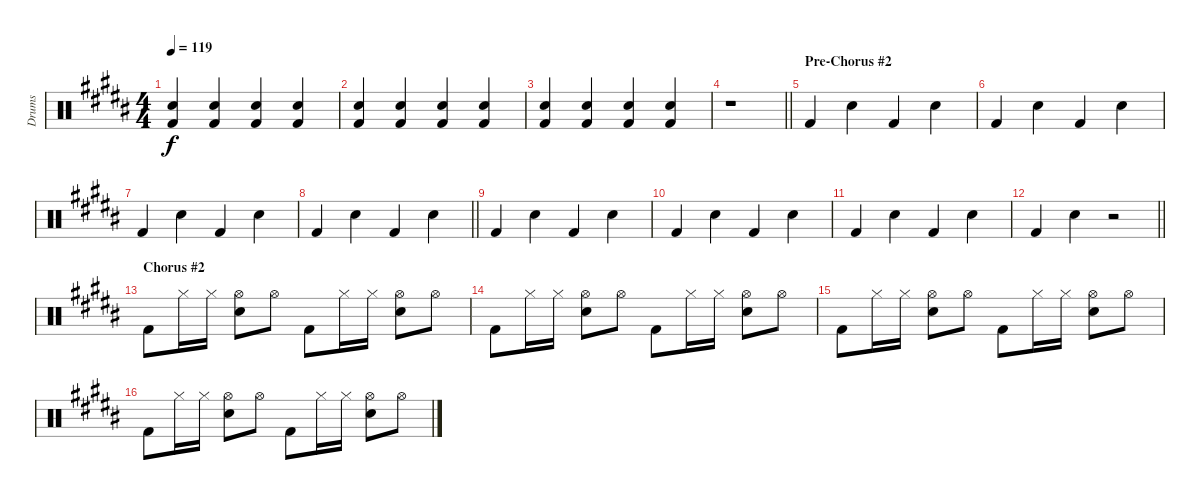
\track ("Drums" "Drums") {instrument percussion}
\staff {score}
\articulation defaults
\ts (4 4)
\tempo 119
\clef neutral
\ks b
("Kick (hit) 2" "Electric Snare (hit)").4{dy f} ("Kick (hit) 2" "Snare (hit) 2").4 ("Kick (hit) 2" "Electric Snare (hit)").4 ("Kick (hit) 2" "Snare (hit) 2").4 |
("Kick (hit) 2" "Electric Snare (hit)").4 ("Kick (hit) 2" "Snare (hit) 2").4 ("Kick (hit) 2" "Electric Snare (hit)").4 ("Kick (hit) 2" "Snare (hit) 2").4 |
("Kick (hit) 2" "Electric Snare (hit)").4 ("Kick (hit) 2" "Snare (hit) 2").4 ("Kick (hit) 2" "Electric Snare (hit)").4 ("Kick (hit) 2" "Snare (hit) 2").4 |
\barLineRight lightlight
r.1 |
\section ("" "Pre-Chorus #2")
"Kick (hit) 2".4 "Snare (hit) 2".4 "Kick (hit) 2".4 "Snare (hit) 2".4 |
"Kick (hit) 2".4 "Snare (hit) 2".4 "Kick (hit) 2".4 "Snare (hit) 2".4 |
"Kick (hit) 2".4 "Snare (hit) 2".4 "Kick (hit) 2".4 "Snare (hit) 2".4 |
\barLineRight lightlight "Kick (hit) 2".4 "Snare (hit) 2".4 "Kick (hit) 2".4 "Snare (hit) 2".4
|
"Kick (hit) 2".4 "Snare (hit) 2".4 "Kick (hit) 2".4 "Snare (hit) 2".4 |
"Kick (hit) 2".4 "Snare (hit) 2".4 "Kick (hit) 2".4 "Snare (hit) 2".4 |
"Kick (hit) 2".4 "Snare (hit) 2".4 "Kick (hit) 2".4 "Snare (hit) 2".4 |
\barLineRight lightlight "Kick (hit) 2".4 "Snare (hit) 2".4
r.2 |
\section ("" "Chorus #2")
"Kick (hit) 2".8 "Hi-Hat (closed)".16 "Hi-Hat (closed)".16 ("Snare (hit) 2" "Hi-Hat (open)").8 "Hi-Hat (open)".8 "Kick (hit) 2".8 "Hi-Hat (closed)".16 "Hi-Hat (closed)".16 ("Snare (hit) 2" "Hi-Hat (open)").8 "Hi-Hat (open)".8 |
"Kick (hit) 2".8 "Hi-Hat (closed)".16 "Hi-Hat (closed)".16 ("Snare (hit) 2" "Hi-Hat (open)").8 "Hi-Hat (open)".8 "Kick (hit) 2".8 "Hi-Hat (closed)".16 "Hi-Hat (closed)".16 ("Snare (hit) 2" "Hi-Hat (open)").8 "Hi-Hat (open)".8 |
"Kick (hit) 2".8 "Hi-Hat (closed)".16 "Hi-Hat (closed)".16 ("Snare (hit) 2" "Hi-Hat (open)").8 "Hi-Hat (open)".8 "Kick (hit) 2".8 "Hi-Hat (closed)".16 "Hi-Hat (closed)".16 ("Snare (hit) 2" "Hi-Hat (open)").8 "Hi-Hat (open)".8 |
"Kick (hit) 2".8 "Hi-Hat (closed)".16 "Hi-Hat (closed)".16 ("Snare (hit) 2" "Hi-Hat (open)").8 "Hi-Hat (open)".8 "Kick (hit) 2".8 "Hi-Hat (closed)".16 "Hi-Hat (closed)".16 ("Snare (hit) 2" "Hi-Hat (open)").8 "Hi-Hat (open)".8
